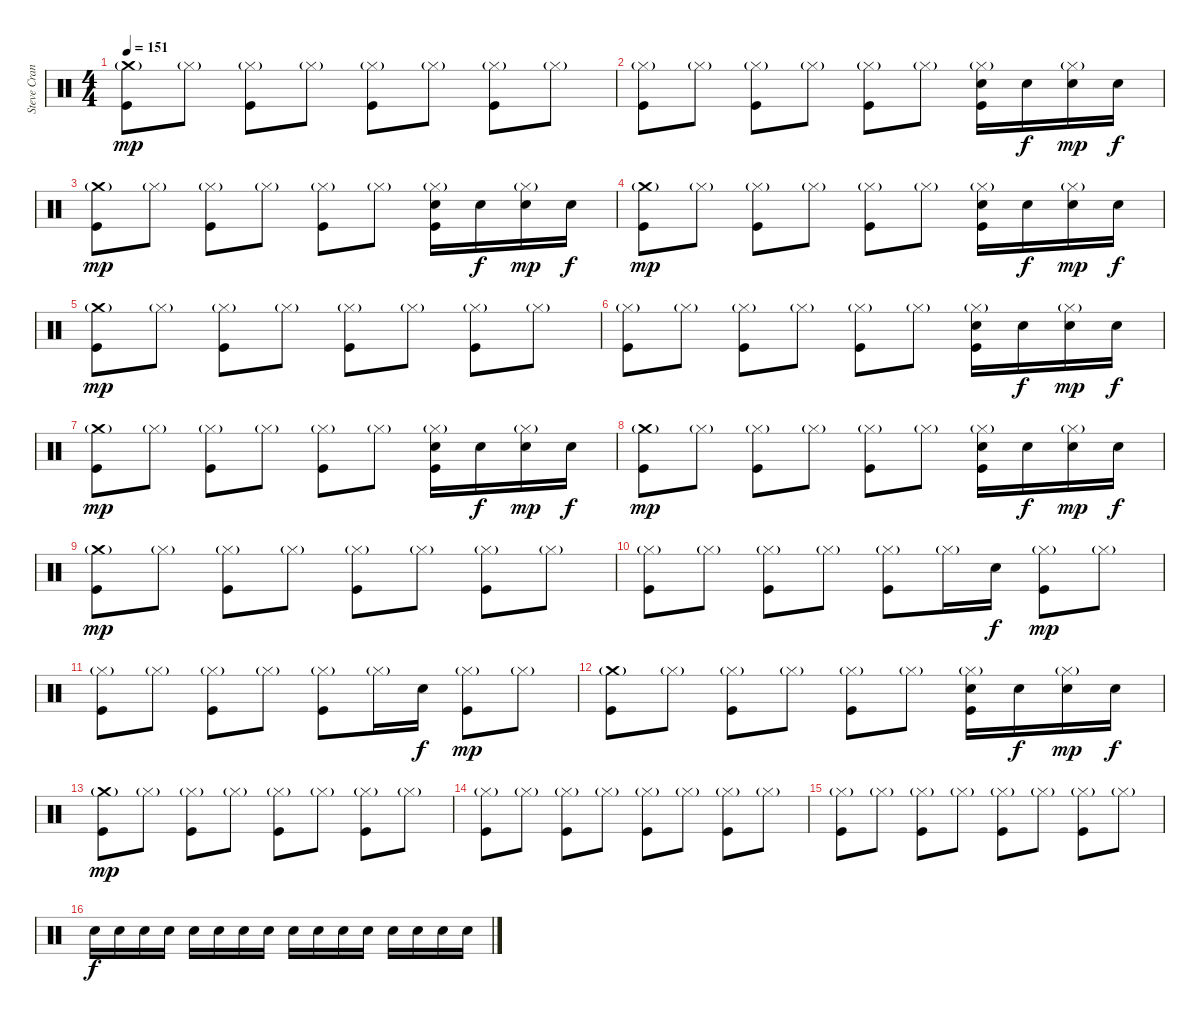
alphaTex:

\track ("Steve Crane" "Steve Cran") {instrument percussion}
\staff {score}
\articulation defaults
\ts (4 4)
\tempo 151
\clef neutral
\ks c
("Crash medium (hit)"{g} "Kick (hit)").8{dy mp} "Hi-Hat (closed)"{g}.8 ("Hi-Hat (closed)"{g} "Kick (hit)").8 "Hi-Hat (closed)"{g}.8 ("Hi-Hat (closed)"{g} "Kick (hit)").8 "Hi-Hat (closed)"{g}.8 ("Hi-Hat (closed)"{g} "Kick (hit)").8 "Hi-Hat (closed)"{g}.8 |
("Hi-Hat (closed)"{g} "Kick (hit)").8 "Hi-Hat (closed)"{g}.8 ("Hi-Hat (closed)"{g} "Kick (hit)").8 "Hi-Hat (closed)"{g}.8 ("Hi-Hat (closed)"{g} "Kick (hit)").8 "Hi-Hat (closed)"{g}.8 ("Hi-Hat (closed)"{g} "Snare (hit) 2" "Kick (hit)").16 "Snare (hit) 2".16{dy f} ("Hi-Hat (closed)"{g} "Snare (hit) 2").16{dy mp} "Snare (hit) 2".16{dy f} |
("Crash medium (hit)"{g} "Kick (hit)").8{dy mp} "Hi-Hat (closed)"{g}.8 ("Hi-Hat (closed)"{g} "Kick (hit)").8 "Hi-Hat (closed)"{g}.8 ("Hi-Hat (closed)"{g} "Kick (hit)").8 "Hi-Hat (closed)"{g}.8 ("Hi-Hat (closed)"{g} "Snare (hit) 2" "Kick (hit)").16 "Snare (hit) 2".16{dy f} ("Hi-Hat (closed)"{g} "Snare (hit) 2").16{dy mp} "Snare (hit) 2".16{dy f} |
("Crash medium (hit)"{g} "Kick (hit)").8{dy mp} "Hi-Hat (closed)"{g}.8 ("Hi-Hat (closed)"{g} "Kick (hit)").8 "Hi-Hat (closed)"{g}.8 ("Hi-Hat (closed)"{g} "Kick (hit)").8 "Hi-Hat (closed)"{g}.8 ("Hi-Hat (closed)"{g} "Snare (hit) 2" "Kick (hit)").16 "Snare (hit) 2".16{dy f} ("Hi-Hat (closed)"{g} "Snare (hit) 2").16{dy mp} "Snare (hit) 2".16{dy f} |
("Crash medium (hit)"{g} "Kick (hit)").8{dy mp} "Hi-Hat (closed)"{g}.8 ("Hi-Hat (closed)"{g} "Kick (hit)").8 "Hi-Hat (closed)"{g}.8 ("Hi-Hat (closed)"{g} "Kick (hit)").8 "Hi-Hat (closed)"{g}.8 ("Hi-Hat (closed)"{g} "Kick (hit)").8 "Hi-Hat (closed)"{g}.8 |
("Hi-Hat (closed)"{g} "Kick (hit)").8 "Hi-Hat (closed)"{g}.8 ("Hi-Hat (closed)"{g} "Kick (hit)").8 "Hi-Hat (closed)"{g}.8 ("Hi-Hat (closed)"{g} "Kick (hit)").8 "Hi-Hat (closed)"{g}.8 ("Hi-Hat (closed)"{g} "Snare (hit) 2" "Kick (hit)").16 "Snare (hit) 2".16{dy f} ("Hi-Hat (closed)"{g} "Snare (hit) 2").16{dy mp} "Snare (hit) 2".16{dy f} |
("Crash medium (hit)"{g} "Kick (hit)").8{dy mp} "Hi-Hat (closed)"{g}.8 ("Hi-Hat (closed)"{g} "Kick (hit)").8 "Hi-Hat (closed)"{g}.8 ("Hi-Hat (closed)"{g} "Kick (hit)").8 "Hi-Hat (closed)"{g}.8 ("Hi-Hat (closed)"{g} "Snare (hit) 2" "Kick (hit)").16 "Snare (hit) 2".16{dy f} ("Hi-Hat (closed)"{g} "Snare (hit) 2").16{dy mp} "Snare (hit) 2".16{dy f} |
("Crash medium (hit)"{g} "Kick (hit)").8{dy mp} "Hi-Hat (closed)"{g}.8 ("Hi-Hat (closed)"{g} "Kick (hit)").8 "Hi-Hat (closed)"{g}.8 ("Hi-Hat (closed)"{g} "Kick (hit)").8 "Hi-Hat (closed)"{g}.8 ("Hi-Hat (closed)"{g} "Snare (hit) 2" "Kick (hit)").16 "Snare (hit) 2".16{dy f} ("Hi-Hat (closed)"{g} "Snare (hit) 2").16{dy mp} "Snare (hit) 2".16{dy f} |
("Crash medium (hit)"{g} "Kick (hit)").8{dy mp} "Hi-Hat (closed)"{g}.8 ("Hi-Hat (closed)"{g} "Kick (hit)").8 "Hi-Hat (closed)"{g}.8 ("Hi-Hat (closed)"{g} "Kick (hit)").8 "Hi-Hat (closed)"{g}.8 ("Hi-Hat (closed)"{g} "Kick (hit)").8 "Hi-Hat (closed)"{g}.8 |
("Hi-Hat (closed)"{g} "Kick (hit)").8 "Hi-Hat (closed)"{g}.8 ("Hi-Hat (closed)"{g} "Kick (hit)").8 "Hi-Hat (closed)"{g}.8 ("Hi-Hat (closed)"{g} "Kick (hit)").8 "Hi-Hat (closed)"{g}.16 "Snare (hit) 2".16{dy f} ("Hi-Hat (closed)"{g} "Kick (hit)").8{dy mp} "Hi-Hat (closed)"{g}.8 |
("Hi-Hat (closed)"{g} "Kick (hit)").8 "Hi-Hat (closed)"{g}.8 ("Hi-Hat (closed)"{g} "Kick (hit)").8 "Hi-Hat (closed)"{g}.8 ("Hi-Hat (closed)"{g} "Kick (hit)").8 "Hi-Hat (closed)"{g}.16 "Snare (hit) 2".16{dy f} ("Hi-Hat (closed)"{g} "Kick (hit)").8{dy mp} "Hi-Hat (closed)"{g}.8 |
("Crash medium (hit)"{g} "Kick (hit)").8 "Hi-Hat (closed)"{g}.8 ("Hi-Hat (closed)"{g} "Kick (hit)").8 "Hi-Hat (closed)"{g}.8 ("Hi-Hat (closed)"{g} "Kick (hit)").8 "Hi-Hat (closed)"{g}.8 ("Hi-Hat (closed)"{g} "Snare (hit) 2" "Kick (hit)").16 "Snare (hit) 2".16{dy f} ("Hi-Hat (closed)"{g} "Snare (hit) 2").16{dy mp} "Snare (hit) 2".16{dy f} |
("Crash medium (hit)"{g} "Kick (hit)").8{dy mp} "Hi-Hat (closed)"{g}.8 ("Hi-Hat (closed)"{g} "Kick (hit)").8 "Hi-Hat (closed)"{g}.8 ("Hi-Hat (closed)"{g} "Kick (hit)").8 "Hi-Hat (closed)"{g}.8 ("Hi-Hat (closed)"{g} "Kick (hit)").8 "Hi-Hat (closed)"{g}.8 |
("Hi-Hat (closed)"{g} "Kick (hit)").8 "Hi-Hat (closed)"{g}.8 ("Hi-Hat (closed)"{g} "Kick (hit)").8 "Hi-Hat (closed)"{g}.8 ("Hi-Hat (closed)"{g} "Kick (hit)").8 "Hi-Hat (closed)"{g}.8 ("Hi-Hat (closed)"{g} "Kick (hit)").8 "Hi-Hat (closed)"{g}.8 |
("Hi-Hat (closed)"{g} "Kick (hit)").8 "Hi-Hat (closed)"{g}.8 ("Hi-Hat (closed)"{g} "Kick (hit)").8 "Hi-Hat (closed)"{g}.8 ("Hi-Hat (closed)"{g} "Kick (hit)").8 "Hi-Hat (closed)"{g}.8 ("Hi-Hat (closed)"{g} "Kick (hit)").8 "Hi-Hat (closed)"{g}.8 |
"Snare (hit) 2".16{dy f} "Snare (hit) 2".16 "Snare (hit) 2".16 "Snare (hit) 2".16 "Snare (hit) 2".16 "Snare (hit) 2".16 "Snare (hit) 2".16 "Snare (hit) 2".16 "Snare (hit) 2".16 "Snare (hit) 2".16 "Snare (hit) 2".16 "Snare (hit) 2".16 "Snare (hit) 2".16 "Snare (hit) 2".16 "Snare (hit) 2".16 "Snare (hit) 2".16
